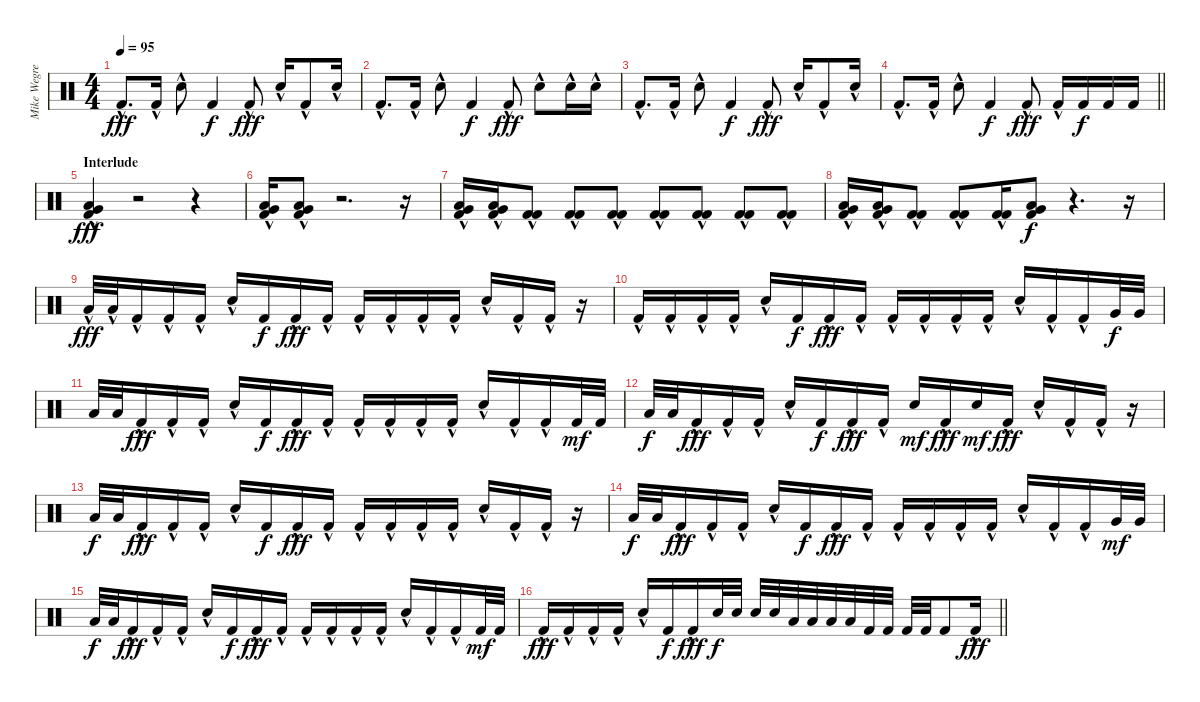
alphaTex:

\track ("Mike Wegren 2" "Mike Wegre") {instrument percussion}
\staff {score}
\articulation defaults
\ts (4 4)
\tempo 95
\clef neutral
\ks c "Kick (hit) 2"{hac}.8{d dy fff} "Kick (hit) 2"{hac}.16 "Snare (hit) 2"{hac}.8 "Kick (hit) 2".4{dy f} "Kick (hit) 2"{hac}.8{dy fff} "Snare (hit) 2"{hac}.16 "Kick (hit) 2"{hac}.8 "Snare (hit) 2"{hac}.16
|
"Kick (hit) 2"{hac}.8{d} "Kick (hit) 2"{hac}.16 "Snare (hit) 2"{hac}.8 "Kick (hit) 2".4{dy f} "Kick (hit) 2"{hac}.8{dy fff} "Snare (hit) 2"{hac}.8 "Snare (hit) 2"{hac}.16 "Snare (hit) 2"{hac}.16 |
"Kick (hit) 2"{hac}.8{d} "Kick (hit) 2"{hac}.16 "Snare (hit) 2"{hac}.8 "Kick (hit) 2".4{dy f} "Kick (hit) 2"{hac}.8{dy fff} "Snare (hit) 2"{hac}.16 "Kick (hit) 2"{hac}.8 "Snare (hit) 2"{hac}.16 |
\barLineRight lightlight "Kick (hit) 2"{hac}.8{d} "Kick (hit) 2"{hac}.16 "Snare (hit) 2"{hac}.8 "Kick (hit) 2".4{dy f} "Kick (hit) 2"{hac}.8{dy fff} "Kick (hit) 2"{hac}.16 "Kick (hit) 2".16{dy f} "Kick (hit) 2".16 "Kick (hit) 2".16
|
\section ("" "Interlude")
("Very Low Tom (hit)" "Low Floor Tom (hit)" "Kick (hit) 2"{hac}).4{dy fff} r.2 r.4 |
("Very Low Tom (hit)" "Low Floor Tom (hit)" "Kick (hit) 2"{hac}).16 ("Very Low Tom (hit)" "Low Floor Tom (hit)" "Kick (hit) 2"{hac}).8 r.2{d} r.16 |
("Very Low Tom (hit)" "Low Floor Tom (hit)" "Kick (hit) 2"{hac}).16 ("Very Low Tom (hit)" "Low Floor Tom (hit)" "Kick (hit) 2"{hac}).16 ("Kick (hit) 2"{hac} "Kick (hit) 2"{hac}).8 ("Kick (hit) 2"{hac} "Kick (hit) 2"{hac}).8 ("Kick (hit) 2"{hac} "Kick (hit) 2"{hac}).8 ("Kick (hit) 2"{hac} "Kick (hit) 2"{hac}).8 ("Kick (hit) 2"{hac} "Kick (hit) 2"{hac}).8 ("Kick (hit) 2"{hac} "Kick (hit) 2"{hac}).8 ("Kick (hit) 2"{hac} "Kick (hit) 2").8 |
("Very Low Tom (hit)" "Low Floor Tom (hit)" "Kick (hit) 2"{hac}).16 ("Very Low Tom (hit)" "Low Floor Tom (hit)" "Kick (hit) 2"{hac}).16 ("Kick (hit) 2" "Kick (hit) 2"{hac}).8 ("Kick (hit) 2" "Kick (hit) 2"{hac}).8 ("Kick (hit) 2" "Kick (hit) 2"{hac}).16 ("Very Low Tom (hit)" "Low Floor Tom (hit)" "Kick (hit) 2").8{dy f} r.4{d} r.16 |
"Low Floor Tom (hit)"{hac}.32{dy fff} "Low Floor Tom (hit)"{hac}.32 "Kick (hit) 2"{hac}.16 "Kick (hit) 2"{hac}.16 "Kick (hit) 2"{hac}.16 "Snare (hit) 2"{hac}.16 "Kick (hit) 2".16{dy f} "Kick (hit) 2"{hac}.16{dy fff} "Kick (hit) 2"{hac}.16 "Kick (hit) 2"{hac}.16 "Kick (hit) 2"{hac}.16 "Kick (hit) 2"{hac}.16 "Kick (hit) 2"{hac}.16 "Snare (hit) 2"{hac}.16 "Kick (hit) 2"{hac}.16 "Kick (hit) 2"{hac}.16 r.16 |
"Kick (hit) 2"{hac}.16 "Kick (hit) 2"{hac}.16 "Kick (hit) 2"{hac}.16 "Kick (hit) 2"{hac}.16 "Snare (hit) 2"{hac}.16 "Kick (hit) 2".16{dy f} "Kick (hit) 2"{hac}.16{dy fff} "Kick (hit) 2"{hac}.16 "Kick (hit) 2"{hac}.16 "Kick (hit) 2"{hac}.16 "Kick (hit) 2"{hac}.16 "Kick (hit) 2"{hac}.16 "Snare (hit) 2"{hac}.16 "Kick (hit) 2"{hac}.16 "Kick (hit) 2"{hac}.16 "Very Low Tom (hit)".32{dy f} "Very Low Tom (hit)".32 |
"Low Floor Tom (hit)".32 "Low Floor Tom (hit)".32 "Kick (hit) 2"{hac}.16{dy fff} "Kick (hit) 2"{hac}.16 "Kick (hit) 2"{hac}.16 "Snare (hit) 2"{hac}.16 "Kick (hit) 2".16{dy f} "Kick (hit) 2"{hac}.16{dy fff} "Kick (hit) 2"{hac}.16 "Kick (hit) 2"{hac}.16 "Kick (hit) 2"{hac}.16 "Kick (hit) 2"{hac}.16 "Kick (hit) 2"{hac}.16 "Snare (hit) 2"{hac}.16 "Kick (hit) 2"{hac}.16 "Kick (hit) 2"{hac}.16 "Kick (hit) 2".32{dy mf} "Kick (hit) 2".32 |
"Low Floor Tom (hit)".32{dy f} "Low Floor Tom (hit)".32 "Kick (hit) 2"{hac}.16{dy fff} "Kick (hit) 2"{hac}.16 "Kick (hit) 2"{hac}.16 "Snare (hit) 2"{hac}.16 "Kick (hit) 2".16{dy f} "Kick (hit) 2"{hac}.16{dy fff} "Kick (hit) 2"{hac}.16 "Snare (hit) 2".16{dy mf} "Kick (hit) 2"{hac}.16{dy fff} "Snare (hit) 2".16{dy mf} "Kick (hit) 2"{hac}.16{dy fff} "Snare (hit) 2"{hac}.16 "Kick (hit) 2"{hac}.16 "Kick (hit) 2"{hac}.16 r.16 |
"Low Floor Tom (hit)".32{dy f} "Low Floor Tom (hit)".32 "Kick (hit) 2"{hac}.16{dy fff} "Kick (hit) 2"{hac}.16 "Kick (hit) 2"{hac}.16 "Snare (hit) 2"{hac}.16 "Kick (hit) 2".16{dy f} "Kick (hit) 2"{hac}.16{dy fff} "Kick (hit) 2"{hac}.16 "Kick (hit) 2"{hac}.16 "Kick (hit) 2"{hac}.16 "Kick (hit) 2"{hac}.16 "Kick (hit) 2"{hac}.16 "Snare (hit) 2"{hac}.16 "Kick (hit) 2"{hac}.16 "Kick (hit) 2"{hac}.16 r.16 |
"Low Floor Tom (hit)".32{dy f} "Low Floor Tom (hit)".32 "Kick (hit) 2"{hac}.16{dy fff} "Kick (hit) 2"{hac}.16 "Kick (hit) 2"{hac}.16 "Snare (hit) 2"{hac}.16 "Kick (hit) 2".16{dy f} "Kick (hit) 2"{hac}.16{dy fff} "Kick (hit) 2"{hac}.16 "Kick (hit) 2"{hac}.16 "Kick (hit) 2"{hac}.16 "Kick (hit) 2"{hac}.16 "Kick (hit) 2"{hac}.16 "Snare (hit) 2"{hac}.16 "Kick (hit) 2"{hac}.16 "Kick (hit) 2"{hac}.16 "Very Low Tom (hit)".32{dy mf} "Very Low Tom (hit)".32 |
"Low Floor Tom (hit)".32{dy f} "Low Floor Tom (hit)".32 "Kick (hit) 2"{hac}.16{dy fff} "Kick (hit) 2"{hac}.16 "Kick (hit) 2"{hac}.16 "Snare (hit) 2"{hac}.16 "Kick (hit) 2".16{dy f} "Kick (hit) 2"{hac}.16{dy fff} "Kick (hit) 2"{hac}.16 "Kick (hit) 2"{hac}.16 "Kick (hit) 2"{hac}.16 "Kick (hit) 2"{hac}.16 "Kick (hit) 2"{hac}.16 "Snare (hit) 2"{hac}.16 "Kick (hit) 2"{hac}.16 "Kick (hit) 2"{hac}.16 "Kick (hit) 2".32{dy mf} "Kick (hit) 2".32 |
\barLineRight lightlight "Kick (hit) 2"{hac}.16{dy fff} "Kick (hit) 2"{hac}.16 "Kick (hit) 2"{hac}.16 "Kick (hit) 2"{hac}.16 "Snare (hit) 2"{hac}.16 "Kick (hit) 2".16{dy f} "Kick (hit) 2"{hac}.16{dy fff} "Snare (hit) 2".32{dy f} "Snare (hit) 2".32 "Snare (hit) 2".32 "Snare (hit) 2".32 "Low Floor Tom (hit)".32 "Low Floor Tom (hit)".32 "Low Floor Tom (hit)".32 "Low Floor Tom (hit)".32 "Kick (hit) 2".32 "Kick (hit) 2".32 "Kick (hit) 2".32 "Kick (hit) 2".32 "Kick (hit) 2".8 "Kick (hit) 2"{hac}.16{dy fff}
